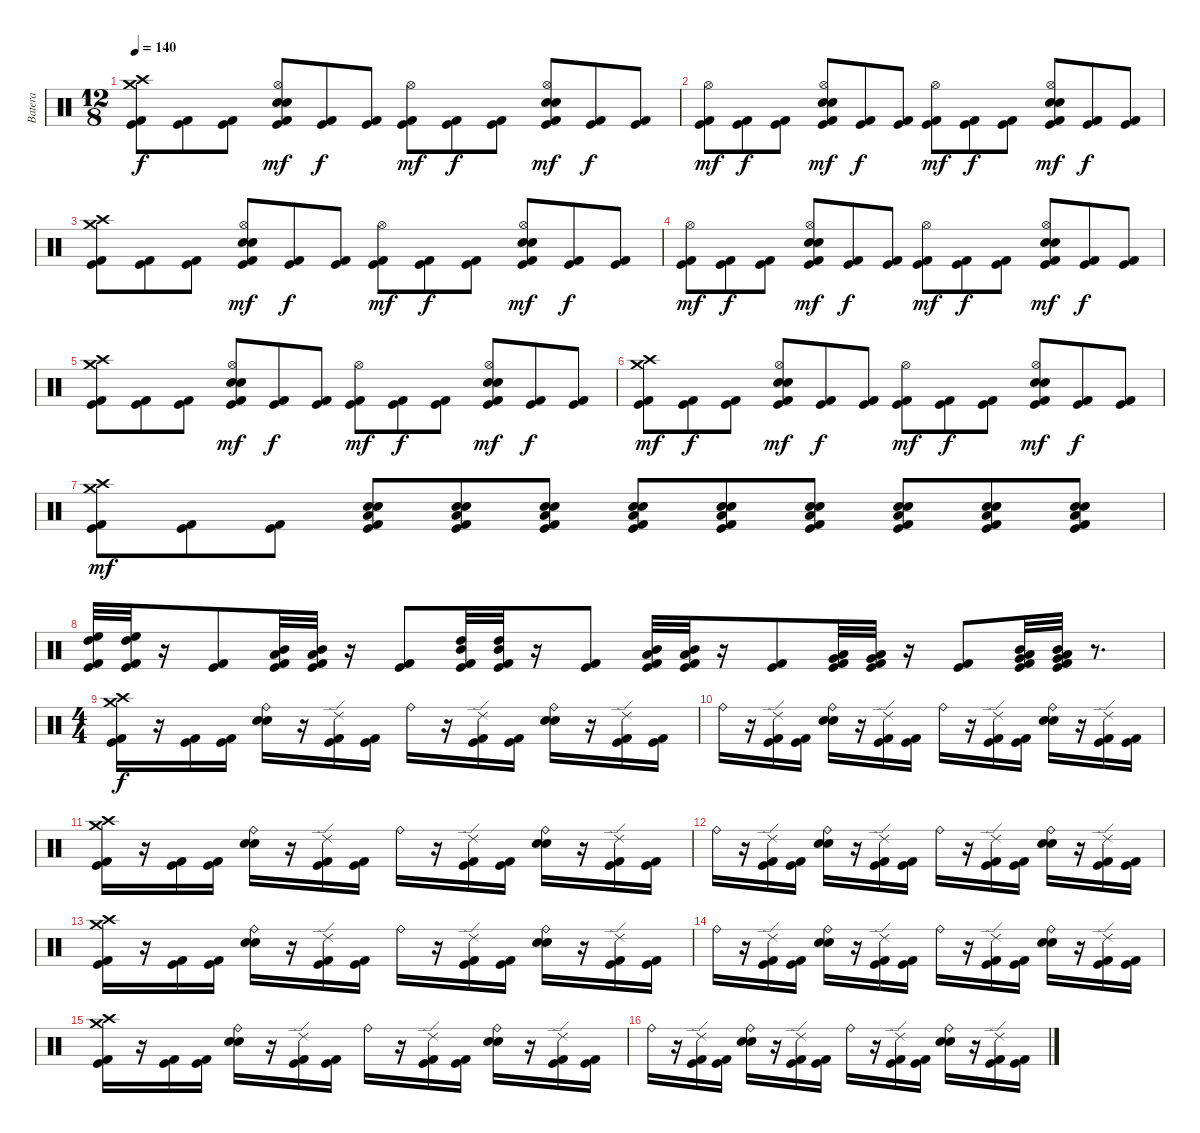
\track ("Batera" "Batera") {instrument percussion}
\staff {score}
\articulation defaults
\ts (12 8)
\tempo 140
\clef neutral
\ks c
("Crash high (hit)" "Crash medium (hit)" "Kick (hit) 2" "Kick (hit)").8{dy f} ("Kick (hit) 2" "Kick (hit)").8 ("Kick (hit) 2" "Kick (hit)").8 ("Hi-Hat (open)" "Electric Snare (hit)" "Snare (hit) 2" "Kick (hit) 2" "Kick (hit)").8{dy mf} ("Kick (hit) 2" "Kick (hit)").8{dy f} ("Kick (hit) 2" "Kick (hit)").8 ("Hi-Hat (open)" "Kick (hit) 2" "Kick (hit)").8{dy mf} ("Kick (hit) 2" "Kick (hit)").8{dy f} ("Kick (hit) 2" "Kick (hit)").8 ("Hi-Hat (open)" "Electric Snare (hit)" "Snare (hit) 2" "Kick (hit) 2" "Kick (hit)").8{dy mf} ("Kick (hit) 2" "Kick (hit)").8{dy f} ("Kick (hit) 2" "Kick (hit)").8 |
("Hi-Hat (open)" "Kick (hit)" "Kick (hit) 2").8{dy mf} ("Kick (hit)" "Kick (hit) 2").8{dy f} ("Kick (hit) 2" "Kick (hit)").8 ("Hi-Hat (open)" "Electric Snare (hit)" "Snare (hit) 2" "Kick (hit) 2" "Kick (hit)").8{dy mf} ("Kick (hit) 2" "Kick (hit)").8{dy f} ("Kick (hit) 2" "Kick (hit)").8 ("Hi-Hat (open)" "Kick (hit) 2" "Kick (hit)").8{dy mf} ("Kick (hit) 2" "Kick (hit)").8{dy f} ("Kick (hit) 2" "Kick (hit)").8 ("Hi-Hat (open)" "Electric Snare (hit)" "Snare (hit) 2" "Kick (hit) 2" "Kick (hit)").8{dy mf} ("Kick (hit) 2" "Kick (hit)").8{dy f} ("Kick (hit) 2" "Kick (hit)").8 |
("Crash high (hit)" "Crash medium (hit)" "Kick (hit) 2" "Kick (hit)").8 ("Kick (hit) 2" "Kick (hit)").8 ("Kick (hit) 2" "Kick (hit)").8 ("Hi-Hat (open)" "Electric Snare (hit)" "Snare (hit) 2" "Kick (hit) 2" "Kick (hit)").8{dy mf} ("Kick (hit) 2" "Kick (hit)").8{dy f} ("Kick (hit) 2" "Kick (hit)").8 ("Hi-Hat (open)" "Kick (hit) 2" "Kick (hit)").8{dy mf} ("Kick (hit) 2" "Kick (hit)").8{dy f} ("Kick (hit) 2" "Kick (hit)").8 ("Hi-Hat (open)" "Electric Snare (hit)" "Snare (hit) 2" "Kick (hit) 2" "Kick (hit)").8{dy mf} ("Kick (hit) 2" "Kick (hit)").8{dy f} ("Kick (hit) 2" "Kick (hit)").8 |
("Hi-Hat (open)" "Kick (hit)" "Kick (hit) 2").8{dy mf} ("Kick (hit)" "Kick (hit) 2").8{dy f} ("Kick (hit) 2" "Kick (hit)").8 ("Hi-Hat (open)" "Electric Snare (hit)" "Snare (hit) 2" "Kick (hit) 2" "Kick (hit)").8{dy mf} ("Kick (hit) 2" "Kick (hit)").8{dy f} ("Kick (hit) 2" "Kick (hit)").8 ("Hi-Hat (open)" "Kick (hit) 2" "Kick (hit)").8{dy mf} ("Kick (hit) 2" "Kick (hit)").8{dy f} ("Kick (hit) 2" "Kick (hit)").8 ("Hi-Hat (open)" "Electric Snare (hit)" "Snare (hit) 2" "Kick (hit) 2" "Kick (hit)").8{dy mf} ("Kick (hit) 2" "Kick (hit)").8{dy f} ("Kick (hit) 2" "Kick (hit)").8 |
("Crash high (hit)" "Crash medium (hit)" "Kick (hit) 2" "Kick (hit)").8 ("Kick (hit) 2" "Kick (hit)").8 ("Kick (hit) 2" "Kick (hit)").8 ("Hi-Hat (open)" "Electric Snare (hit)" "Snare (hit) 2" "Kick (hit) 2" "Kick (hit)").8{dy mf} ("Kick (hit) 2" "Kick (hit)").8{dy f} ("Kick (hit) 2" "Kick (hit)").8 ("Hi-Hat (open)" "Kick (hit) 2" "Kick (hit)").8{dy mf} ("Kick (hit) 2" "Kick (hit)").8{dy f} ("Kick (hit) 2" "Kick (hit)").8 ("Hi-Hat (open)" "Electric Snare (hit)" "Snare (hit) 2" "Kick (hit) 2" "Kick (hit)").8{dy mf} ("Kick (hit) 2" "Kick (hit)").8{dy f} ("Kick (hit) 2" "Kick (hit)").8 |
("Crash medium (hit)" "Crash high (hit)" "Kick (hit)" "Kick (hit) 2").8{dy mf} ("Kick (hit)" "Kick (hit) 2").8{dy f} ("Kick (hit) 2" "Kick (hit)").8 ("Hi-Hat (open)" "Electric Snare (hit)" "Snare (hit) 2" "Kick (hit) 2" "Kick (hit)").8{dy mf} ("Kick (hit) 2" "Kick (hit)").8{dy f} ("Kick (hit) 2" "Kick (hit)").8 ("Hi-Hat (open)" "Kick (hit) 2" "Kick (hit)").8{dy mf} ("Kick (hit) 2" "Kick (hit)").8{dy f} ("Kick (hit) 2" "Kick (hit)").8 ("Hi-Hat (open)" "Electric Snare (hit)" "Snare (hit) 2" "Kick (hit) 2" "Kick (hit)").8{dy mf} ("Kick (hit) 2" "Kick (hit)").8{dy f} ("Kick (hit) 2" "Kick (hit)").8 |
("Crash high (hit)" "Crash medium (hit)" "Kick (hit) 2" "Kick (hit)").8{dy mf} ("Kick (hit) 2" "Kick (hit)").8 ("Kick (hit) 2" "Kick (hit)").8 ("Low Floor Tom (hit)" "Electric Snare (hit)" "Snare (hit) 2" "Kick (hit) 2" "Kick (hit)").8 ("Low Floor Tom (hit)" "Electric Snare (hit)" "Snare (hit) 2" "Kick (hit) 2" "Kick (hit)").8 ("Low Floor Tom (hit)" "Electric Snare (hit)" "Snare (hit) 2" "Kick (hit) 2" "Kick (hit)").8 ("Low Floor Tom (hit)" "Electric Snare (hit)" "Snare (hit) 2" "Kick (hit) 2" "Kick (hit)").8 ("Low Floor Tom (hit)" "Electric Snare (hit)" "Snare (hit) 2" "Kick (hit) 2" "Kick (hit)").8 ("Low Floor Tom (hit)" "Electric Snare (hit)" "Snare (hit) 2" "Kick (hit) 2" "Kick (hit)").8 ("Low Floor Tom (hit)" "Snare (hit) 2" "Electric Snare (hit)" "Kick (hit) 2" "Kick (hit)").8 ("Low Floor Tom (hit)" "Snare (hit) 2" "Electric Snare (hit)" "Kick (hit) 2" "Kick (hit)").8 ("Low Floor Tom (hit)" "Snare (hit) 2" "Electric Snare (hit)" "Kick (hit) 2" "Kick (hit)").8 |
("High Floor Tom (hit)" "Kick (hit) 2" "Kick (hit)" "High Tom (hit)").32 ("High Floor Tom (hit)" "Kick (hit) 2" "Kick (hit)" "High Tom (hit)").32 r.16 ("Kick (hit) 2" "Kick (hit)").8 ("Mid Tom (hit)" "Kick (hit) 2" "Kick (hit)" "Low Tom (hit)").32 ("Mid Tom (hit)" "Kick (hit) 2" "Kick (hit)" "Low Tom (hit)").32 r.16 ("Kick (hit) 2" "Kick (hit)").8 ("High Tom (hit)" "Kick (hit) 2" "Kick (hit)" "Mid Tom (hit)").32 ("High Tom (hit)" "Kick (hit) 2" "Kick (hit)" "Mid Tom (hit)").32 r.16 ("Kick (hit) 2" "Kick (hit)").8 ("Mid Tom (hit)" "Kick (hit) 2" "Kick (hit)" "Low Tom (hit)").32 ("Mid Tom (hit)" "Kick (hit) 2" "Kick (hit)" "Low Tom (hit)").32 r.16 ("Kick (hit) 2" "Kick (hit)").8 ("Low Tom (hit)" "Kick (hit) 2" "Kick (hit)" "Very Low Tom (hit)").32 ("Low Tom (hit)" "Kick (hit) 2" "Kick (hit)" "Very Low Tom (hit)").32 r.16 ("Kick (hit) 2" "Kick (hit)").8 ("Kick (hit) 2" "Kick (hit)" "Mid Tom (hit)" "Very Low Tom (hit)" "Low Floor Tom (hit)").32 ("Kick (hit) 2" "Kick (hit)" "Very Low Tom (hit)" "Mid Tom (hit)" "Low Floor Tom (hit)").32 r.8{d} |
\ts (4 4)
("Crash high (hit)" "Crash medium (hit)" "Kick (hit) 2" "Kick (hit)").16{dy f} r.16 ("Kick (hit) 2" "Kick (hit)").16 ("Kick (hit) 2" "Kick (hit)").16 ("Ride (bell)" "Electric Snare (hit)" "Snare (hit) 2").16 r.16 ("Ride (edge) 2" "Kick (hit) 2" "Kick (hit)").16 ("Kick (hit) 2" "Kick (hit)").16 "Ride (bell)".16 r.16 ("Ride (edge) 2" "Kick (hit) 2" "Kick (hit)").16 ("Kick (hit) 2" "Kick (hit)").16 ("Ride (bell)" "Electric Snare (hit)" "Snare (hit) 2").16 r.16 ("Ride (edge) 2" "Kick (hit) 2" "Kick (hit)").16 ("Kick (hit) 2" "Kick (hit)").16 |
"Ride (bell)".16 r.16 ("Ride (edge) 2" "Kick (hit) 2" "Kick (hit)").16 ("Kick (hit) 2" "Kick (hit)").16 ("Ride (bell)" "Electric Snare (hit)" "Snare (hit) 2").16 r.16 ("Ride (edge) 2" "Kick (hit) 2" "Kick (hit)").16 ("Kick (hit) 2" "Kick (hit)").16 "Ride (bell)".16 r.16 ("Ride (edge) 2" "Kick (hit) 2" "Kick (hit)").16 ("Kick (hit) 2" "Kick (hit)").16 ("Ride (bell)" "Electric Snare (hit)" "Snare (hit) 2").16 r.16 ("Ride (edge) 2" "Kick (hit) 2" "Kick (hit)").16 ("Kick (hit) 2" "Kick (hit)").16 |
("Crash high (hit)" "Crash medium (hit)" "Kick (hit) 2" "Kick (hit)").16 r.16 ("Kick (hit) 2" "Kick (hit)").16 ("Kick (hit) 2" "Kick (hit)").16 ("Ride (bell)" "Electric Snare (hit)" "Snare (hit) 2").16 r.16 ("Ride (edge) 2" "Kick (hit) 2" "Kick (hit)").16 ("Kick (hit) 2" "Kick (hit)").16 "Ride (bell)".16 r.16 ("Ride (edge) 2" "Kick (hit) 2" "Kick (hit)").16 ("Kick (hit) 2" "Kick (hit)").16 ("Ride (bell)" "Electric Snare (hit)" "Snare (hit) 2").16 r.16 ("Ride (edge) 2" "Kick (hit) 2" "Kick (hit)").16 ("Kick (hit) 2" "Kick (hit)").16 |
"Ride (bell)".16 r.16 ("Ride (edge) 2" "Kick (hit) 2" "Kick (hit)").16 ("Kick (hit) 2" "Kick (hit)").16 ("Ride (bell)" "Electric Snare (hit)" "Snare (hit) 2").16 r.16 ("Ride (edge) 2" "Kick (hit) 2" "Kick (hit)").16 ("Kick (hit) 2" "Kick (hit)").16 "Ride (bell)".16 r.16 ("Ride (edge) 2" "Kick (hit) 2" "Kick (hit)").16 ("Kick (hit) 2" "Kick (hit)").16 ("Ride (bell)" "Electric Snare (hit)" "Snare (hit) 2").16 r.16 ("Ride (edge) 2" "Kick (hit) 2" "Kick (hit)").16 ("Kick (hit) 2" "Kick (hit)").16 |
("Crash high (hit)" "Crash medium (hit)" "Kick (hit) 2" "Kick (hit)").16 r.16 ("Kick (hit) 2" "Kick (hit)").16 ("Kick (hit) 2" "Kick (hit)").16 ("Ride (bell)" "Electric Snare (hit)" "Snare (hit) 2").16 r.16 ("Ride (edge) 2" "Kick (hit) 2" "Kick (hit)").16 ("Kick (hit) 2" "Kick (hit)").16 "Ride (bell)".16 r.16 ("Ride (edge) 2" "Kick (hit) 2" "Kick (hit)").16 ("Kick (hit) 2" "Kick (hit)").16 ("Ride (bell)" "Electric Snare (hit)" "Snare (hit) 2").16 r.16 ("Ride (edge) 2" "Kick (hit) 2" "Kick (hit)").16 ("Kick (hit) 2" "Kick (hit)").16 |
"Ride (bell)".16 r.16 ("Ride (edge) 2" "Kick (hit) 2" "Kick (hit)").16 ("Kick (hit) 2" "Kick (hit)").16 ("Ride (bell)" "Electric Snare (hit)" "Snare (hit) 2").16 r.16 ("Ride (edge) 2" "Kick (hit) 2" "Kick (hit)").16 ("Kick (hit) 2" "Kick (hit)").16 "Ride (bell)".16 r.16 ("Ride (edge) 2" "Kick (hit) 2" "Kick (hit)").16 ("Kick (hit) 2" "Kick (hit)").16 ("Ride (bell)" "Electric Snare (hit)" "Snare (hit) 2").16 r.16 ("Ride (edge) 2" "Kick (hit) 2" "Kick (hit)").16 ("Kick (hit) 2" "Kick (hit)").16 |
("Crash high (hit)" "Crash medium (hit)" "Kick (hit) 2" "Kick (hit)").16 r.16 ("Kick (hit) 2" "Kick (hit)").16 ("Kick (hit) 2" "Kick (hit)").16 ("Ride (bell)" "Electric Snare (hit)" "Snare (hit) 2").16 r.16 ("Ride (edge) 2" "Kick (hit) 2" "Kick (hit)").16 ("Kick (hit) 2" "Kick (hit)").16 "Ride (bell)".16 r.16 ("Ride (edge) 2" "Kick (hit) 2" "Kick (hit)").16 ("Kick (hit) 2" "Kick (hit)").16 ("Ride (bell)" "Electric Snare (hit)" "Snare (hit) 2").16 r.16 ("Ride (edge) 2" "Kick (hit) 2" "Kick (hit)").16 ("Kick (hit) 2" "Kick (hit)").16 |
"Ride (bell)".16 r.16 ("Ride (edge) 2" "Kick (hit) 2" "Kick (hit)").16 ("Kick (hit) 2" "Kick (hit)").16 ("Ride (bell)" "Electric Snare (hit)" "Snare (hit) 2").16 r.16 ("Ride (edge) 2" "Kick (hit) 2" "Kick (hit)").16 ("Kick (hit) 2" "Kick (hit)").16 "Ride (bell)".16 r.16 ("Ride (edge) 2" "Kick (hit) 2" "Kick (hit)").16 ("Kick (hit) 2" "Kick (hit)").16 ("Ride (bell)" "Electric Snare (hit)" "Snare (hit) 2").16 r.16 ("Ride (edge) 2" "Kick (hit) 2" "Kick (hit)").16 ("Kick (hit) 2" "Kick (hit)").16
